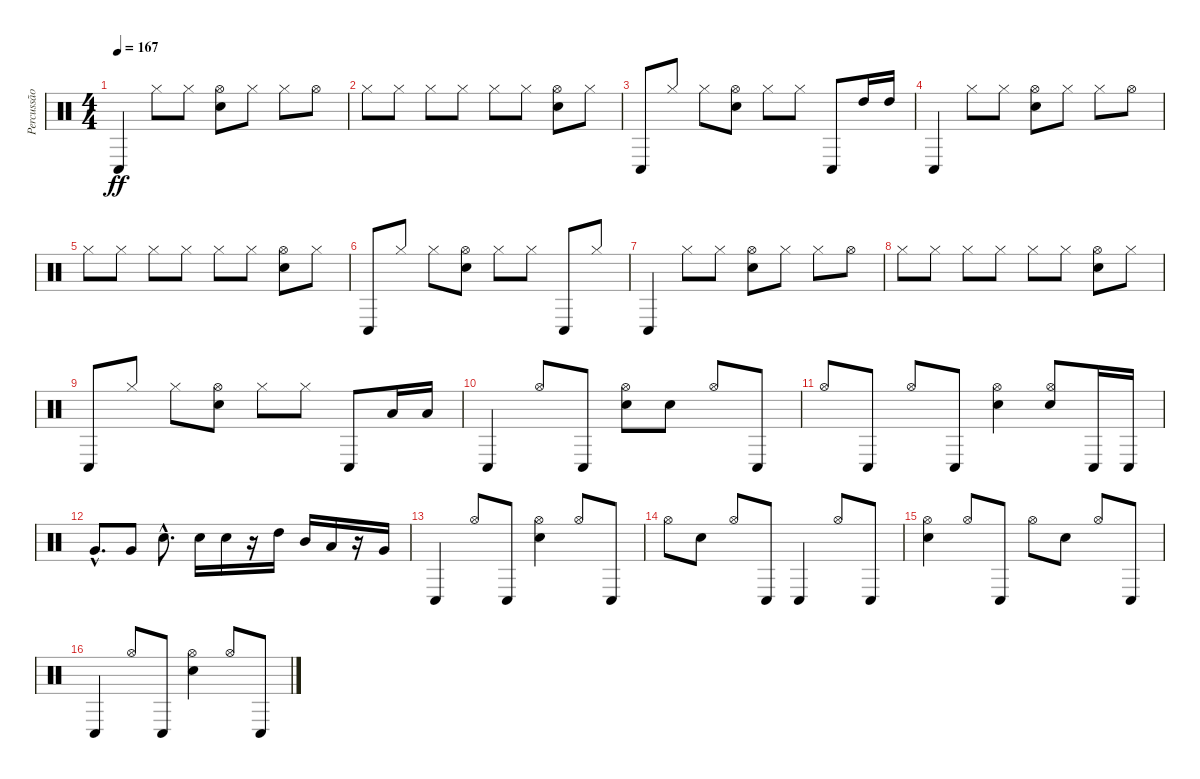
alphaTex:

\track ("Percussão" "Percussão") {instrument percussion}
\staff {score}
\articulation defaults
\ts (4 4)
\tempo 167
\clef neutral
\ks c "Conga low (hit)".4{dy ff} "Hi-Hat (closed)".8 "Hi-Hat (closed)".8
("Electric Snare (hit)" "Hi-Hat (open)").8 "Hi-Hat (closed)".8 "Hi-Hat (closed)".8 "Hi-Hat (open)".8 |
"Hi-Hat (closed)".8 "Hi-Hat (closed)".8 "Hi-Hat (closed)".8 "Hi-Hat (closed)".8 "Hi-Hat (closed)".8 "Hi-Hat (closed)".8 ("Electric Snare (hit)" "Hi-Hat (open)").8 "Hi-Hat (closed)".8 |
"Conga low (hit)".8 "Hi-Hat (closed)".8 "Hi-Hat (closed)".8 ("Electric Snare (hit)" "Hi-Hat (open)").8 "Hi-Hat (closed)".8 "Hi-Hat (closed)".8 "Conga low (hit)".8 "High Tom (hit)".16 "High Tom (hit)".16 |
"Conga low (hit)".4 "Hi-Hat (closed)".8 "Hi-Hat (closed)".8 ("Electric Snare (hit)" "Hi-Hat (open)").8 "Hi-Hat (closed)".8 "Hi-Hat (closed)".8 "Hi-Hat (open)".8 |
"Hi-Hat (closed)".8 "Hi-Hat (closed)".8 "Hi-Hat (closed)".8 "Hi-Hat (closed)".8 "Hi-Hat (closed)".8 "Hi-Hat (closed)".8 ("Electric Snare (hit)" "Hi-Hat (open)").8 "Hi-Hat (closed)".8 |
"Conga low (hit)".8 "Hi-Hat (closed)".8 "Hi-Hat (closed)".8 ("Electric Snare (hit)" "Hi-Hat (open)").8 "Hi-Hat (closed)".8 "Hi-Hat (closed)".8 "Conga low (hit)".8 "Hi-Hat (closed)".8 |
"Conga low (hit)".4 "Hi-Hat (closed)".8 "Hi-Hat (closed)".8 ("Electric Snare (hit)" "Hi-Hat (open)").8 "Hi-Hat (closed)".8 "Hi-Hat (closed)".8 "Hi-Hat (open)".8 |
"Hi-Hat (closed)".8 "Hi-Hat (closed)".8 "Hi-Hat (closed)".8 "Hi-Hat (closed)".8 "Hi-Hat (closed)".8 "Hi-Hat (closed)".8 ("Electric Snare (hit)" "Hi-Hat (open)").8 "Hi-Hat (closed)".8 |
"Conga low (hit)".8 "Hi-Hat (closed)".8 "Hi-Hat (closed)".8 ("Electric Snare (hit)" "Hi-Hat (open)").8 "Hi-Hat (closed)".8 "Hi-Hat (closed)".8 "Conga low (hit)".8 "Low Tom (hit)".16 "Low Tom (hit)".16 |
"Conga low (hit)".4 "Hi-Hat (open)".8 "Conga low (hit)".8 ("Electric Snare (hit)" "Hi-Hat (open)").8 "Electric Snare (hit)".8 "Hi-Hat (open)".8 "Conga low (hit)".8 |
"Hi-Hat (open)".8 "Conga low (hit)".8 "Hi-Hat (open)".8 "Conga low (hit)".8 ("Electric Snare (hit)" "Hi-Hat (open)").4 ("Electric Snare (hit)" "Hi-Hat (open)").8 "Conga low (hit)".16 "Conga low (hit)".16 |
"Very Low Tom (hit)"{hac}.8{d} "Very Low Tom (hit)".8 "Electric Snare (hit)"{hac}.8{d} "Electric Snare (hit)".16 "Electric Snare (hit)".16 r.16 "High Tom (hit)".16 "Mid Tom (hit)".16 "Low Tom (hit)".16 r.16 "Very Low Tom (hit)".16 |
"Conga low (hit)".4 "Hi-Hat (open)".8 "Conga low (hit)".8 ("Electric Snare (hit)" "Hi-Hat (open)").4 "Hi-Hat (open)".8 "Conga low (hit)".8 |
"Hi-Hat (open)".8 "Electric Snare (hit)".8 "Hi-Hat (open)".8 "Conga low (hit)".8 "Conga low (hit)".4 "Hi-Hat (open)".8 "Conga low (hit)".8 |
("Electric Snare (hit)" "Hi-Hat (open)").4 "Hi-Hat (open)".8 "Conga low (hit)".8 "Hi-Hat (open)".8 "Electric Snare (hit)".8 "Hi-Hat (open)".8 "Conga low (hit)".8 |
"Conga low (hit)".4 "Hi-Hat (open)".8 "Conga low (hit)".8 ("Electric Snare (hit)" "Hi-Hat (open)").4 "Hi-Hat (open)".8 "Conga low (hit)".8
